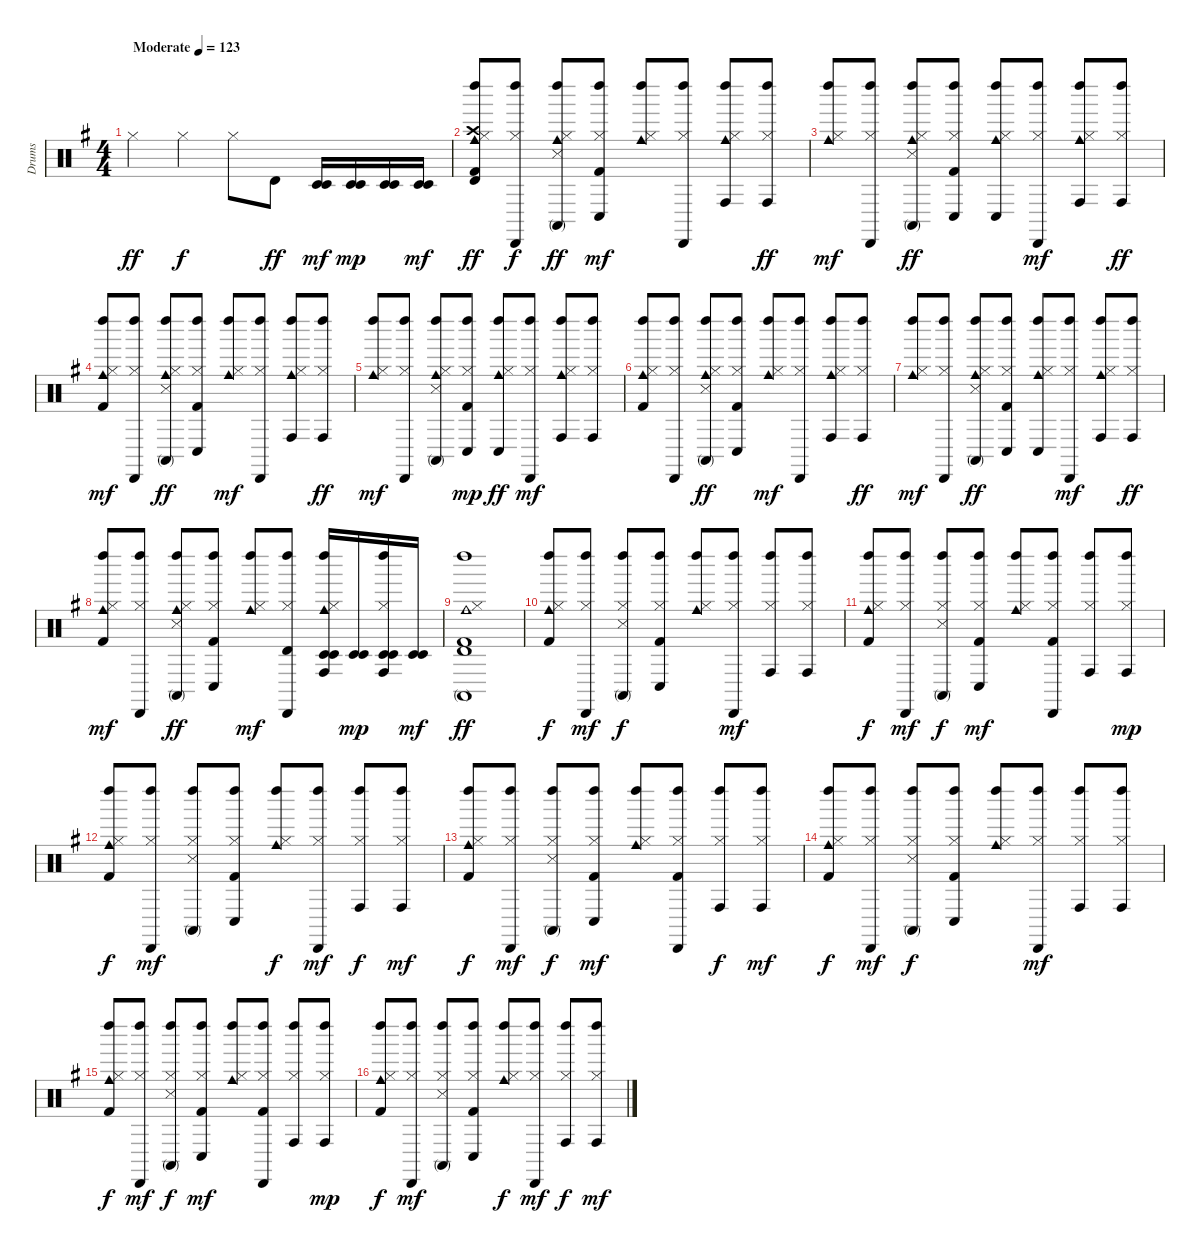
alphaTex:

\track ("Drums" "Drums") {instrument percussion}
\staff {score}
\articulation defaults
\ts (4 4)
\tempo (123 "Moderate")
\clef neutral
\ks g "Hi-Hat (closed)".4{dy ff} "Hi-Hat (closed)".4{dy f} "Hi-Hat (closed)".8 "Timbale high (hit)".8{dy ff}
("Timbale low (hit)" "Timbale low (hit)").16{dy mf} ("Timbale low (hit)" "Timbale low (hit)").16{dy mp} ("Timbale low (hit)" "Timbale low (hit)").16 ("Timbale low (hit)" "Timbale low (hit)").16{dy mf} |
("Kick (hit) 2" "Hi-Hat (closed)" "Crash high (hit)" "Cowbell medium (hit)" "Timbale high (hit)" "Left Maraca (hit)").8{dy ff} ("Hi-Hat (closed)" "Cabasa (hit)" "Left Maraca (hit)").8{dy f} ("Snare (side stick) 3" "Hi-Hat (closed)" "Cowbell medium (hit)" "Conga high (mute)" "Left Maraca (hit)").8{dy ff} ("Kick (hit) 2" "Hi-Hat (closed)" "Conga low (hit)" "Left Maraca (hit)").8{dy mf} ("Hi-Hat (closed)" "Cowbell medium (hit)" "Left Maraca (hit)").8 ("Hi-Hat (closed)" "Cabasa (hit)" "Left Maraca (hit)").8 ("Hi-Hat (closed)" "Cowbell medium (hit)" "Conga high (hit)" "Left Maraca (hit)").8 ("Hi-Hat (closed)" "Conga high (hit)" "Left Maraca (hit)").8{dy ff} |
("Hi-Hat (closed)" "Cowbell medium (hit)" "Left Maraca (hit)").8{dy mf} ("Hi-Hat (closed)" "Cabasa (hit)" "Left Maraca (hit)").8 ("Snare (side stick) 3" "Hi-Hat (closed)" "Cowbell medium (hit)" "Conga high (mute)" "Left Maraca (hit)").8{dy ff} ("Kick (hit) 2" "Hi-Hat (closed)" "Conga low (hit)" "Left Maraca (hit)").8 ("Hi-Hat (closed)" "Cowbell medium (hit)" "Conga low (hit)" "Left Maraca (hit)").8 ("Hi-Hat (closed)" "Cabasa (hit)" "Left Maraca (hit)").8{dy mf} ("Hi-Hat (closed)" "Cowbell medium (hit)" "Conga high (hit)" "Left Maraca (hit)").8 ("Hi-Hat (closed)" "Conga high (hit)" "Left Maraca (hit)").8{dy ff} |
("Kick (hit) 2" "Hi-Hat (closed)" "Cowbell medium (hit)" "Left Maraca (hit)").8{dy mf} ("Hi-Hat (closed)" "Cabasa (hit)" "Left Maraca (hit)").8 ("Snare (side stick) 3" "Hi-Hat (closed)" "Cowbell medium (hit)" "Conga high (mute)" "Left Maraca (hit)").8{dy ff} ("Kick (hit) 2" "Hi-Hat (closed)" "Conga low (hit)" "Left Maraca (hit)").8 ("Hi-Hat (closed)" "Cowbell medium (hit)" "Left Maraca (hit)").8{dy mf} ("Hi-Hat (closed)" "Cabasa (hit)" "Left Maraca (hit)").8 ("Hi-Hat (closed)" "Cowbell medium (hit)" "Conga high (hit)" "Left Maraca (hit)").8 ("Hi-Hat (closed)" "Conga high (hit)" "Left Maraca (hit)").8{dy ff} |
("Hi-Hat (closed)" "Cowbell medium (hit)" "Left Maraca (hit)").8{dy mf} ("Hi-Hat (closed)" "Cabasa (hit)" "Left Maraca (hit)").8 ("Snare (side stick) 3" "Hi-Hat (closed)" "Cowbell medium (hit)" "Conga high (mute)" "Left Maraca (hit)").8 ("Kick (hit) 2" "Hi-Hat (closed)" "Conga low (hit)" "Left Maraca (hit)").8{dy mp} ("Hi-Hat (closed)" "Cowbell medium (hit)" "Conga low (hit)" "Left Maraca (hit)").8{dy ff} ("Hi-Hat (closed)" "Cabasa (hit)" "Left Maraca (hit)").8{dy mf} ("Hi-Hat (closed)" "Cowbell medium (hit)" "Conga high (hit)" "Left Maraca (hit)").8 ("Hi-Hat (closed)" "Conga high (hit)" "Left Maraca (hit)").8 |
("Kick (hit) 2" "Hi-Hat (closed)" "Cowbell medium (hit)" "Left Maraca (hit)").8 ("Hi-Hat (closed)" "Cabasa (hit)" "Left Maraca (hit)").8 ("Snare (side stick) 3" "Hi-Hat (closed)" "Cowbell medium (hit)" "Conga high (mute)" "Left Maraca (hit)").8{dy ff} ("Kick (hit) 2" "Hi-Hat (closed)" "Conga low (hit)" "Left Maraca (hit)").8 ("Hi-Hat (closed)" "Cowbell medium (hit)" "Left Maraca (hit)").8{dy mf} ("Hi-Hat (closed)" "Cabasa (hit)" "Left Maraca (hit)").8 ("Hi-Hat (closed)" "Cowbell medium (hit)" "Conga high (hit)" "Left Maraca (hit)").8 ("Hi-Hat (closed)" "Conga high (hit)" "Left Maraca (hit)").8{dy ff} |
("Hi-Hat (closed)" "Cowbell medium (hit)" "Left Maraca (hit)").8{dy mf} ("Hi-Hat (closed)" "Cabasa (hit)" "Left Maraca (hit)").8 ("Snare (side stick) 3" "Hi-Hat (closed)" "Cowbell medium (hit)" "Conga high (mute)" "Left Maraca (hit)").8{dy ff} ("Kick (hit) 2" "Hi-Hat (closed)" "Conga low (hit)" "Left Maraca (hit)").8 ("Hi-Hat (closed)" "Cowbell medium (hit)" "Conga low (hit)" "Left Maraca (hit)").8 ("Hi-Hat (closed)" "Cabasa (hit)" "Left Maraca (hit)").8{dy mf} ("Hi-Hat (closed)" "Cowbell medium (hit)" "Conga high (hit)" "Left Maraca (hit)").8 ("Hi-Hat (closed)" "Conga high (hit)" "Left Maraca (hit)").8{dy ff} |
("Kick (hit) 2" "Hi-Hat (closed)" "Cowbell medium (hit)" "Left Maraca (hit)").8{dy mf} ("Hi-Hat (closed)" "Cabasa (hit)" "Left Maraca (hit)").8 ("Snare (side stick) 3" "Hi-Hat (closed)" "Cowbell medium (hit)" "Conga high (mute)" "Left Maraca (hit)").8{dy ff} ("Kick (hit) 2" "Hi-Hat (closed)" "Conga low (hit)" "Left Maraca (hit)").8 ("Hi-Hat (closed)" "Cowbell medium (hit)" "Left Maraca (hit)").8{dy mf} ("Hi-Hat (closed)" "Timbale high (hit)" "Cabasa (hit)" "Left Maraca (hit)").8 ("Hi-Hat (closed)" "Cowbell medium (hit)" "Conga high (hit)" "Timbale low (hit)" "Timbale low (hit)" "Left Maraca (hit)").16 ("Timbale low (hit)" "Timbale low (hit)").16{dy mp} ("Hi-Hat (closed)" "Conga high (hit)" "Timbale low (hit)" "Timbale low (hit)" "Left Maraca (hit)").16 ("Timbale low (hit)" "Timbale low (hit)").16{dy mf} |
("Kick (hit) 2" "Hi-Hat (closed)" "Cowbell medium (hit)" "Conga high (mute)" "Timbale high (hit)" "Left Maraca (hit)").1{dy ff} |
("Kick (hit) 2" "Hi-Hat (closed)" "Cowbell medium (hit)" "Left Maraca (hit)").8{dy f} ("Hi-Hat (closed)" "Cabasa (hit)" "Left Maraca (hit)").8{dy mf} ("Snare (side stick) 3" "Hi-Hat (closed)" "Conga high (mute)" "Left Maraca (hit)").8{dy f} ("Kick (hit) 2" "Hi-Hat (closed)" "Conga low (hit)" "Left Maraca (hit)").8 ("Hi-Hat (closed)" "Cowbell medium (hit)" "Left Maraca (hit)").8 ("Hi-Hat (closed)" "Cabasa (hit)" "Left Maraca (hit)").8{dy mf} ("Hi-Hat (closed)" "Conga high (hit)" "Left Maraca (hit)").8 ("Hi-Hat (closed)" "Conga high (hit)" "Left Maraca (hit)").8 |
("Kick (hit) 2" "Hi-Hat (closed)" "Cowbell medium (hit)" "Left Maraca (hit)").8{dy f} ("Hi-Hat (closed)" "Cabasa (hit)" "Left Maraca (hit)").8{dy mf} ("Snare (side stick) 3" "Hi-Hat (closed)" "Conga high (mute)" "Left Maraca (hit)").8{dy f} ("Kick (hit) 2" "Hi-Hat (closed)" "Conga low (hit)" "Left Maraca (hit)").8{dy mf} ("Hi-Hat (closed)" "Cowbell medium (hit)" "Left Maraca (hit)").8 ("Kick (hit) 2" "Hi-Hat (closed)" "Cabasa (hit)" "Left Maraca (hit)").8 ("Hi-Hat (closed)" "Conga high (hit)" "Left Maraca (hit)").8 ("Hi-Hat (closed)" "Conga high (hit)" "Left Maraca (hit)").8{dy mp} |
("Kick (hit) 2" "Hi-Hat (closed)" "Cowbell medium (hit)" "Left Maraca (hit)").8{dy f} ("Hi-Hat (closed)" "Cabasa (hit)" "Left Maraca (hit)").8{dy mf} ("Snare (side stick) 3" "Hi-Hat (closed)" "Conga high (mute)" "Left Maraca (hit)").8 ("Kick (hit) 2" "Hi-Hat (closed)" "Conga low (hit)" "Left Maraca (hit)").8 ("Hi-Hat (closed)" "Cowbell medium (hit)" "Left Maraca (hit)").8{dy f} ("Hi-Hat (closed)" "Cabasa (hit)" "Left Maraca (hit)").8{dy mf} ("Hi-Hat (closed)" "Conga high (hit)" "Left Maraca (hit)").8{dy f} ("Hi-Hat (closed)" "Conga high (hit)" "Left Maraca (hit)").8{dy mf} |
("Kick (hit) 2" "Hi-Hat (closed)" "Cowbell medium (hit)" "Left Maraca (hit)").8{dy f} ("Hi-Hat (closed)" "Cabasa (hit)" "Left Maraca (hit)").8{dy mf} ("Snare (side stick) 3" "Hi-Hat (closed)" "Conga high (mute)" "Left Maraca (hit)").8{dy f} ("Kick (hit) 2" "Hi-Hat (closed)" "Conga low (hit)" "Left Maraca (hit)").8{dy mf} ("Hi-Hat (closed)" "Cowbell medium (hit)" "Left Maraca (hit)").8 ("Kick (hit) 2" "Hi-Hat (closed)" "Cabasa (hit)" "Left Maraca (hit)").8 ("Hi-Hat (closed)" "Conga high (hit)" "Left Maraca (hit)").8{dy f} ("Hi-Hat (closed)" "Conga high (hit)" "Left Maraca (hit)").8{dy mf} |
("Kick (hit) 2" "Hi-Hat (closed)" "Cowbell medium (hit)" "Left Maraca (hit)").8{dy f} ("Hi-Hat (closed)" "Cabasa (hit)" "Left Maraca (hit)").8{dy mf} ("Snare (side stick) 3" "Hi-Hat (closed)" "Conga high (mute)" "Left Maraca (hit)").8{dy f} ("Kick (hit) 2" "Hi-Hat (closed)" "Conga low (hit)" "Left Maraca (hit)").8 ("Hi-Hat (closed)" "Cowbell medium (hit)" "Left Maraca (hit)").8 ("Hi-Hat (closed)" "Cabasa (hit)" "Left Maraca (hit)").8{dy mf} ("Hi-Hat (closed)" "Conga high (hit)" "Left Maraca (hit)").8 ("Hi-Hat (closed)" "Conga high (hit)" "Left Maraca (hit)").8 |
("Kick (hit) 2" "Hi-Hat (closed)" "Cowbell medium (hit)" "Left Maraca (hit)").8{dy f} ("Hi-Hat (closed)" "Cabasa (hit)" "Left Maraca (hit)").8{dy mf} ("Snare (side stick) 3" "Hi-Hat (closed)" "Conga high (mute)" "Left Maraca (hit)").8{dy f} ("Kick (hit) 2" "Hi-Hat (closed)" "Conga low (hit)" "Left Maraca (hit)").8{dy mf} ("Hi-Hat (closed)" "Cowbell medium (hit)" "Left Maraca (hit)").8 ("Kick (hit) 2" "Hi-Hat (closed)" "Cabasa (hit)" "Left Maraca (hit)").8 ("Hi-Hat (closed)" "Conga high (hit)" "Left Maraca (hit)").8 ("Hi-Hat (closed)" "Conga high (hit)" "Left Maraca (hit)").8{dy mp} |
("Kick (hit) 2" "Hi-Hat (closed)" "Cowbell medium (hit)" "Left Maraca (hit)").8{dy f} ("Hi-Hat (closed)" "Cabasa (hit)" "Left Maraca (hit)").8{dy mf} ("Snare (side stick) 3" "Hi-Hat (closed)" "Conga high (mute)" "Left Maraca (hit)").8 ("Kick (hit) 2" "Hi-Hat (closed)" "Conga low (hit)" "Left Maraca (hit)").8 ("Hi-Hat (closed)" "Cowbell medium (hit)" "Left Maraca (hit)").8{dy f} ("Hi-Hat (closed)" "Cabasa (hit)" "Left Maraca (hit)").8{dy mf} ("Hi-Hat (closed)" "Conga high (hit)" "Left Maraca (hit)").8{dy f} ("Hi-Hat (closed)" "Conga high (hit)" "Left Maraca (hit)").8{dy mf}
